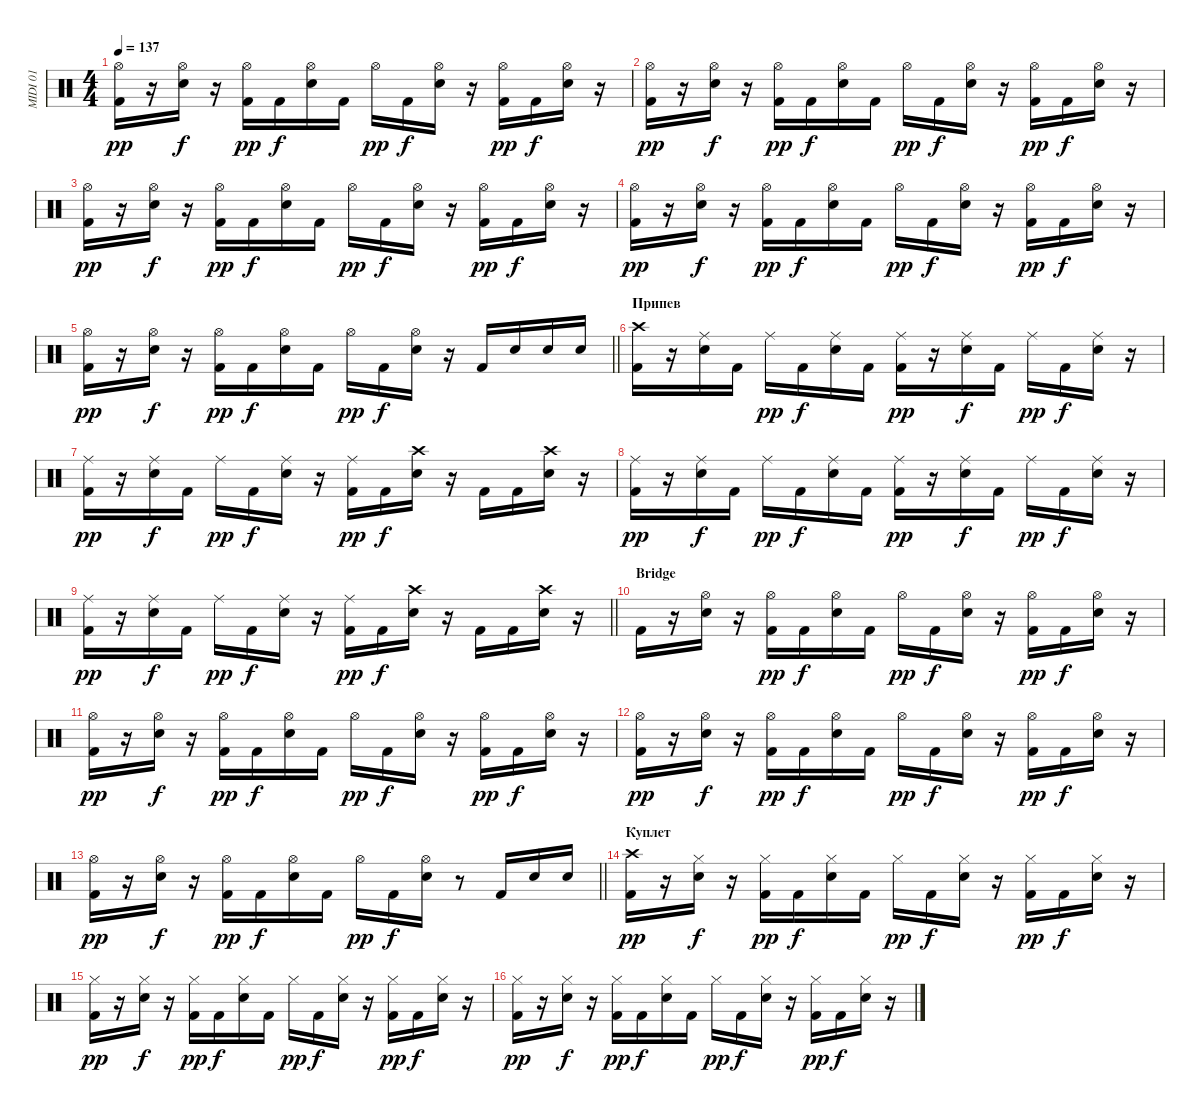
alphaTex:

\track ("MIDI 01" "MIDI 01") {instrument percussion}
\staff {score}
\articulation defaults
\ts (4 4)
\tempo 137
\clef neutral
\ks c
("Hi-Hat (open)" "Kick (hit) 2").16{dy pp} r.16 ("Snare (hit) 2" "Hi-Hat (open)").16{dy f} r.16 ("Kick (hit) 2" "Hi-Hat (open)").16{dy pp} "Kick (hit) 2".16{dy f} ("Snare (hit) 2" "Hi-Hat (open)").16 "Kick (hit) 2".16 "Hi-Hat (open)".16{dy pp} "Kick (hit) 2".16{dy f} ("Snare (hit) 2" "Hi-Hat (open)").16 r.16 ("Kick (hit) 2" "Hi-Hat (open)").16{dy pp} "Kick (hit) 2".16{dy f} ("Snare (hit) 2" "Hi-Hat (open)").16 r.16 |
("Hi-Hat (open)" "Kick (hit) 2").16{dy pp} r.16 ("Snare (hit) 2" "Hi-Hat (open)").16{dy f} r.16 ("Kick (hit) 2" "Hi-Hat (open)").16{dy pp} "Kick (hit) 2".16{dy f} ("Snare (hit) 2" "Hi-Hat (open)").16 "Kick (hit) 2".16 "Hi-Hat (open)".16{dy pp} "Kick (hit) 2".16{dy f} ("Snare (hit) 2" "Hi-Hat (open)").16 r.16 ("Kick (hit) 2" "Hi-Hat (open)").16{dy pp} "Kick (hit) 2".16{dy f} ("Snare (hit) 2" "Hi-Hat (open)").16 r.16 |
("Hi-Hat (open)" "Kick (hit) 2").16{dy pp} r.16 ("Snare (hit) 2" "Hi-Hat (open)").16{dy f} r.16 ("Kick (hit) 2" "Hi-Hat (open)").16{dy pp} "Kick (hit) 2".16{dy f} ("Snare (hit) 2" "Hi-Hat (open)").16 "Kick (hit) 2".16 "Hi-Hat (open)".16{dy pp} "Kick (hit) 2".16{dy f} ("Snare (hit) 2" "Hi-Hat (open)").16 r.16 ("Kick (hit) 2" "Hi-Hat (open)").16{dy pp} "Kick (hit) 2".16{dy f} ("Snare (hit) 2" "Hi-Hat (open)").16 r.16 |
("Hi-Hat (open)" "Kick (hit) 2").16{dy pp} r.16 ("Snare (hit) 2" "Hi-Hat (open)").16{dy f} r.16 ("Kick (hit) 2" "Hi-Hat (open)").16{dy pp} "Kick (hit) 2".16{dy f} ("Snare (hit) 2" "Hi-Hat (open)").16 "Kick (hit) 2".16 "Hi-Hat (open)".16{dy pp} "Kick (hit) 2".16{dy f} ("Snare (hit) 2" "Hi-Hat (open)").16 r.16 ("Kick (hit) 2" "Hi-Hat (open)").16{dy pp} "Kick (hit) 2".16{dy f} ("Snare (hit) 2" "Hi-Hat (open)").16 r.16 |
\barLineRight lightlight
("Hi-Hat (open)" "Kick (hit) 2").16{dy pp} r.16 ("Snare (hit) 2" "Hi-Hat (open)").16{dy f} r.16 ("Kick (hit) 2" "Hi-Hat (open)").16{dy pp} "Kick (hit) 2".16{dy f} ("Snare (hit) 2" "Hi-Hat (open)").16 "Kick (hit) 2".16 "Hi-Hat (open)".16{dy pp} "Kick (hit) 2".16{dy f} ("Snare (hit) 2" "Hi-Hat (open)").16 r.16 "Kick (hit) 2".16 "Snare (hit) 2".16 "Snare (hit) 2".16 "Snare (hit) 2".16 |
\section ("" "Припев")
("Kick (hit) 2" "Crash high (hit)").16 r.16 ("Snare (hit) 2" "Ride (middle)").16 "Kick (hit) 2".16 "Ride (middle)".16{dy pp} "Kick (hit) 2".16{dy f} ("Snare (hit) 2" "Ride (middle)").16 "Kick (hit) 2".16 ("Kick (hit) 2" "Ride (middle)").16{dy pp} r.16 ("Snare (hit) 2" "Ride (middle)").16{dy f} "Kick (hit) 2".16 "Ride (middle)".16{dy pp} "Kick (hit) 2".16{dy f} ("Snare (hit) 2" "Ride (middle)").16 r.16 |
("Kick (hit) 2" "Ride (middle)").16{dy pp} r.16 ("Snare (hit) 2" "Ride (middle)").16{dy f} "Kick (hit) 2".16 "Ride (middle)".16{dy pp} "Kick (hit) 2".16{dy f} ("Snare (hit) 2" "Ride (middle)").16 r.16 ("Kick (hit) 2" "Ride (middle)").16{dy pp} "Kick (hit) 2".16{dy f} ("Snare (hit) 2" "Crash high (hit)").16 r.16 "Kick (hit) 2".16 "Kick (hit) 2".16 ("Snare (hit) 2" "Crash high (hit)").16 r.16 |
("Kick (hit) 2" "Ride (middle)").16{dy pp} r.16 ("Snare (hit) 2" "Ride (middle)").16{dy f} "Kick (hit) 2".16 "Ride (middle)".16{dy pp} "Kick (hit) 2".16{dy f} ("Snare (hit) 2" "Ride (middle)").16 "Kick (hit) 2".16 ("Kick (hit) 2" "Ride (middle)").16{dy pp} r.16 ("Snare (hit) 2" "Ride (middle)").16{dy f} "Kick (hit) 2".16 "Ride (middle)".16{dy pp} "Kick (hit) 2".16{dy f} ("Snare (hit) 2" "Ride (middle)").16 r.16 |
\barLineRight lightlight
("Kick (hit) 2" "Ride (middle)").16{dy pp} r.16 ("Snare (hit) 2" "Ride (middle)").16{dy f} "Kick (hit) 2".16 "Ride (middle)".16{dy pp} "Kick (hit) 2".16{dy f} ("Snare (hit) 2" "Ride (middle)").16 r.16 ("Kick (hit) 2" "Ride (middle)").16{dy pp} "Kick (hit) 2".16{dy f} ("Crash high (hit)" "Snare (hit) 2").16 r.16 "Kick (hit) 2".16 "Kick (hit) 2".16 ("Crash high (hit)" "Snare (hit) 2").16 r.16 |
\section ("" "Bridge")
"Kick (hit) 2".16 r.16 ("Snare (hit) 2" "Hi-Hat (open)").16 r.16 ("Kick (hit) 2" "Hi-Hat (open)").16{dy pp} "Kick (hit) 2".16{dy f} ("Snare (hit) 2" "Hi-Hat (open)").16 "Kick (hit) 2".16 "Hi-Hat (open)".16{dy pp} "Kick (hit) 2".16{dy f} ("Snare (hit) 2" "Hi-Hat (open)").16 r.16 ("Kick (hit) 2" "Hi-Hat (open)").16{dy pp} "Kick (hit) 2".16{dy f} ("Snare (hit) 2" "Hi-Hat (open)").16 r.16 |
("Kick (hit) 2" "Hi-Hat (open)").16{dy pp} r.16 ("Snare (hit) 2" "Hi-Hat (open)").16{dy f} r.16 ("Kick (hit) 2" "Hi-Hat (open)").16{dy pp} "Kick (hit) 2".16{dy f} ("Snare (hit) 2" "Hi-Hat (open)").16 "Kick (hit) 2".16 "Hi-Hat (open)".16{dy pp} "Kick (hit) 2".16{dy f} ("Snare (hit) 2" "Hi-Hat (open)").16 r.16 ("Kick (hit) 2" "Hi-Hat (open)").16{dy pp} "Kick (hit) 2".16{dy f} ("Snare (hit) 2" "Hi-Hat (open)").16 r.16 |
("Kick (hit) 2" "Hi-Hat (open)").16{dy pp} r.16 ("Snare (hit) 2" "Hi-Hat (open)").16{dy f} r.16 ("Kick (hit) 2" "Hi-Hat (open)").16{dy pp} "Kick (hit) 2".16{dy f} ("Snare (hit) 2" "Hi-Hat (open)").16 "Kick (hit) 2".16 "Hi-Hat (open)".16{dy pp} "Kick (hit) 2".16{dy f} ("Snare (hit) 2" "Hi-Hat (open)").16 r.16 ("Kick (hit) 2" "Hi-Hat (open)").16{dy pp} "Kick (hit) 2".16{dy f} ("Snare (hit) 2" "Hi-Hat (open)").16 r.16 |
\barLineRight lightlight
("Kick (hit) 2" "Hi-Hat (open)").16{dy pp} r.16 ("Snare (hit) 2" "Hi-Hat (open)").16{dy f} r.16 ("Kick (hit) 2" "Hi-Hat (open)").16{dy pp} "Kick (hit) 2".16{dy f} ("Snare (hit) 2" "Hi-Hat (open)").16 "Kick (hit) 2".16 "Hi-Hat (open)".16{dy pp} "Kick (hit) 2".16{dy f} ("Snare (hit) 2" "Hi-Hat (open)").16 r.8 "Kick (hit) 2".16 "Snare (hit) 2".16 "Snare (hit) 2".16 |
\section ("" "Куплет")
("Crash high (hit)" "Kick (hit) 2").16{dy pp} r.16 ("Snare (hit) 2" "Hi-Hat (closed)").16{dy f} r.16 ("Kick (hit) 2" "Hi-Hat (closed)").16{dy pp} "Kick (hit) 2".16{dy f} ("Snare (hit) 2" "Hi-Hat (closed)").16 "Kick (hit) 2".16 "Hi-Hat (closed)".16{dy pp} "Kick (hit) 2".16{dy f} ("Snare (hit) 2" "Hi-Hat (closed)").16 r.16 ("Kick (hit) 2" "Hi-Hat (closed)").16{dy pp} "Kick (hit) 2".16{dy f} ("Snare (hit) 2" "Hi-Hat (closed)").16 r.16 |
("Hi-Hat (closed)" "Kick (hit) 2").16{dy pp} r.16 ("Snare (hit) 2" "Hi-Hat (closed)").16{dy f} r.16 ("Kick (hit) 2" "Hi-Hat (closed)").16{dy pp} "Kick (hit) 2".16{dy f} ("Snare (hit) 2" "Hi-Hat (closed)").16 "Kick (hit) 2".16 "Hi-Hat (closed)".16{dy pp} "Kick (hit) 2".16{dy f} ("Snare (hit) 2" "Hi-Hat (closed)").16 r.16 ("Kick (hit) 2" "Hi-Hat (closed)").16{dy pp} "Kick (hit) 2".16{dy f} ("Snare (hit) 2" "Hi-Hat (closed)").16 r.16 |
("Hi-Hat (closed)" "Kick (hit) 2").16{dy pp} r.16 ("Snare (hit) 2" "Hi-Hat (closed)").16{dy f} r.16 ("Kick (hit) 2" "Hi-Hat (closed)").16{dy pp} "Kick (hit) 2".16{dy f} ("Snare (hit) 2" "Hi-Hat (closed)").16 "Kick (hit) 2".16 "Hi-Hat (closed)".16{dy pp} "Kick (hit) 2".16{dy f} ("Snare (hit) 2" "Hi-Hat (closed)").16 r.16 ("Kick (hit) 2" "Hi-Hat (closed)").16{dy pp} "Kick (hit) 2".16{dy f} ("Snare (hit) 2" "Hi-Hat (closed)").16 r.16
